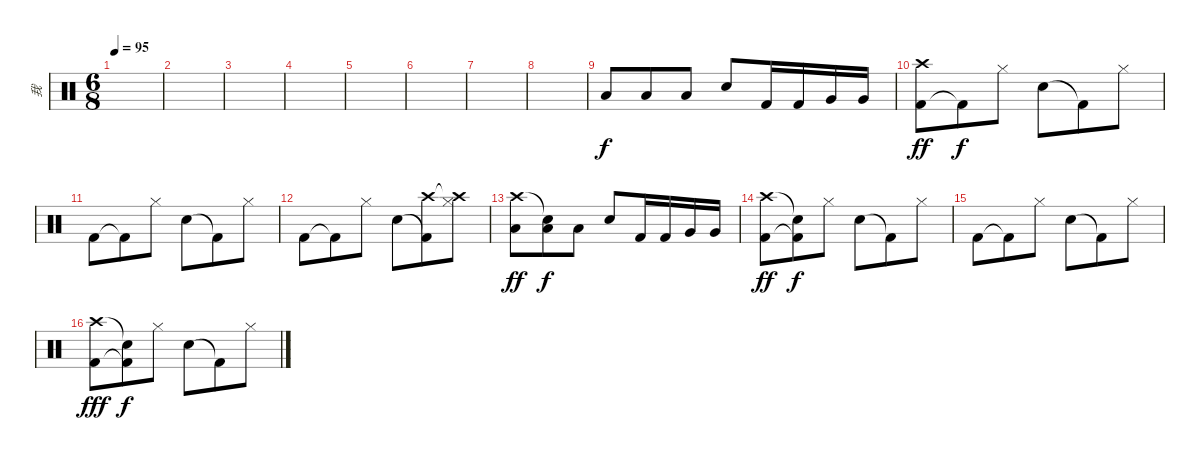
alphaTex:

\track ("我" "我") {instrument percussion}
\staff {score}
\articulation defaults
\ts (6 8)
\tempo 95
\clef neutral
\ks c
|
|
|
|
|
|
|
|
"Low Tom (hit)".8{dy f} "Low Tom (hit)".8 "Low Tom (hit)".8 "Snare (hit) 2".8 "Kick (hit) 2".16 "Kick (hit) 2".16 "Very Low Tom (hit)".16 "Very Low Tom (hit)".16 |
("Kick (hit) 2" "Crash high (hit)").8{dy ff} "Kick (hit) 2"{t}.8{dy f} "Hi-Hat (closed)".8 "Electric Snare (hit)".8 "Kick (hit) 2"{t}.8 "Hi-Hat (closed)".8 |
"Kick (hit) 2".8 "Kick (hit) 2"{t}.8 "Hi-Hat (closed)".8 "Electric Snare (hit)".8 "Kick (hit) 2"{t}.8 "Hi-Hat (closed)".8 |
"Kick (hit) 2".8 "Kick (hit) 2"{t}.8 "Hi-Hat (closed)".8 "Electric Snare (hit)".8 ("Kick (hit) 2"{t} "Crash high (hit)").8 ("Hi-Hat (closed)" "Crash high (hit)"{t}).8 |
("Low Tom (hit)" "Crash high (hit)").8{dy ff} ("Low Tom (hit)" "Snare (hit)"{t}).8{dy f} "Low Tom (hit)".8 "Snare (hit) 2".8 "Kick (hit) 2".16 "Kick (hit) 2".16 "Very Low Tom (hit)".16 "Very Low Tom (hit)".16 |
("Kick (hit) 2" "Crash high (hit)").8{dy ff} ("Kick (hit) 2"{t} "Snare (hit)"{t}).8{dy f} "Hi-Hat (closed)".8 "Electric Snare (hit)".8 "Kick (hit) 2"{t}.8 "Hi-Hat (closed)".8 |
"Kick (hit) 2".8 "Kick (hit) 2"{t}.8 "Hi-Hat (closed)".8 "Electric Snare (hit)".8 "Kick (hit) 2"{t}.8 "Hi-Hat (closed)".8 |
("Kick (hit) 2" "Crash high (hit)").8{dy fff} ("Kick (hit) 2"{t} "Snare (hit)"{t}).8{dy f} "Hi-Hat (closed)".8 "Electric Snare (hit)".8 "Kick (hit) 2"{t}.8 "Hi-Hat (closed)".8
